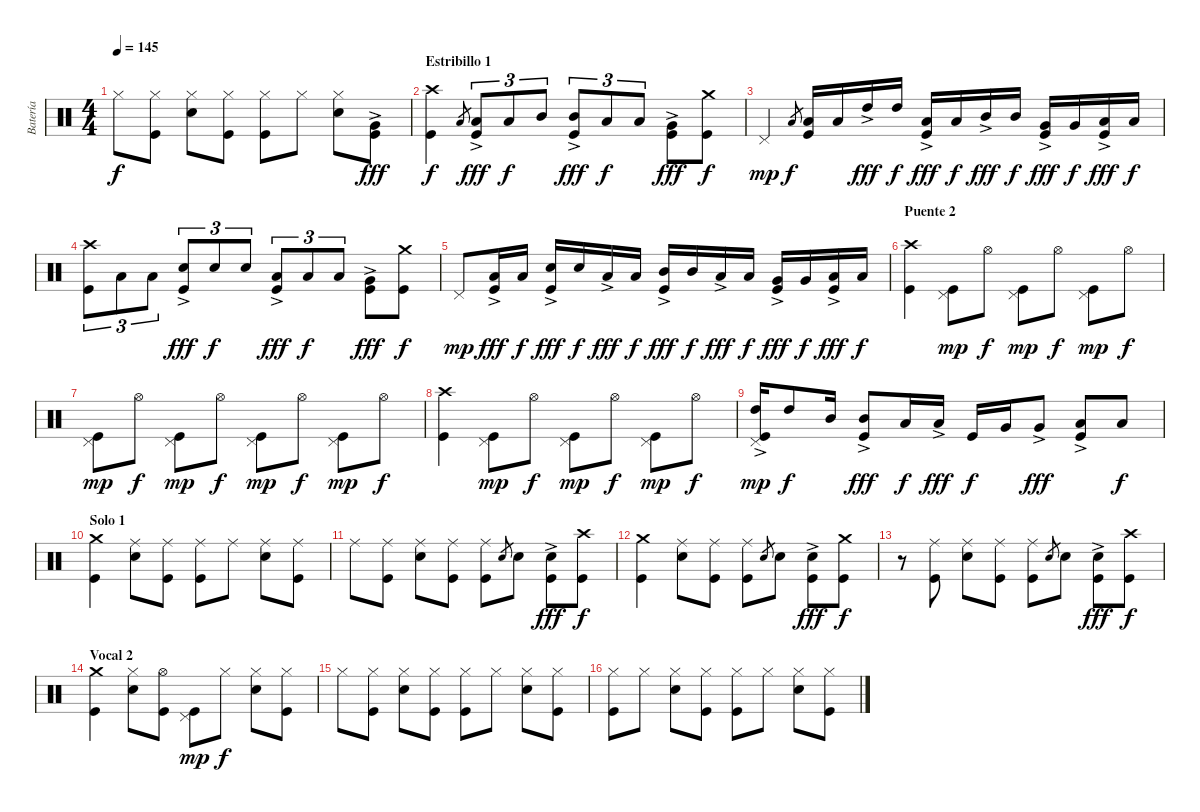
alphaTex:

\track ("Batería" "Batería") {instrument percussion}
\staff {score}
\articulation defaults
\ts (4 4)
\tempo 145
\clef neutral
\ks c "Hi-Hat (closed)".8{dy f}
("Kick (hit)" "Hi-Hat (closed)").8 ("Electric Snare (hit)" "Hi-Hat (closed)").8 ("Kick (hit)" "Hi-Hat (closed)").8 ("Kick (hit)" "Hi-Hat (closed)").8 "Hi-Hat (closed)".8 ("Electric Snare (hit)" "Hi-Hat (closed)").8 ("Kick (hit)" "Very Low Tom (hit)"{ac}).8{dy fff} |
\section ("" "Estribillo 1")
("Kick (hit)" "Crash high (hit)").4{dy f} "Low Tom (hit)".8{gr} ("Kick (hit)" "Low Tom (hit)"{ac}).8{tu (3 2) dy fff} "Low Tom (hit)".8{tu (3 2) dy f} "Mid Tom (hit)".8{tu (3 2)} ("Kick (hit)" "Mid Tom (hit)"{ac}).8{tu (3 2) dy fff} "Low Tom (hit)".8{tu (3 2) dy f} "Low Tom (hit)".8{tu (3 2)} ("Kick (hit)" "Very Low Tom (hit)"{ac}).8{dy fff} ("Kick (hit)" "Crash medium (hit)").8{dy f} |
"Pedal Hi-Hat (hit)".4{dy mp} "Low Tom (hit)".8{gr dy f} ("Kick (hit)" "Low Tom (hit)").16 "Low Tom (hit)".16 "High Tom (hit)"{ac}.16{dy fff} "High Tom (hit)".16{dy f} ("Kick (hit)" "Low Tom (hit)"{ac}).16{dy fff} "Low Tom (hit)".16{dy f} "Mid Tom (hit)"{ac}.16{dy fff} "Mid Tom (hit)".16{dy f} ("Kick (hit)" "Very Low Tom (hit)"{ac}).16{dy fff} "Very Low Tom (hit)".16{dy f} ("Kick (hit)" "Low Floor Tom (hit)"{ac}).16{dy fff} "Low Floor Tom (hit)".16{dy f} |
("Kick (hit)" "Crash high (hit)").8{tu (3 2)} "Low Tom (hit)".8{tu (3 2)} "Low Tom (hit)".8{tu (3 2)} ("Kick (hit)" "Electric Snare (hit)"{ac}).8{tu (3 2) dy fff} "Electric Snare (hit)".8{tu (3 2) dy f} "Electric Snare (hit)".8{tu (3 2)} ("Kick (hit)" "Low Tom (hit)"{ac}).8{tu (3 2) dy fff} "Low Tom (hit)".8{tu (3 2) dy f} "Low Tom (hit)".8{tu (3 2)} ("Kick (hit)" "Very Low Tom (hit)"{ac}).8{dy fff} ("Kick (hit)" "Crash medium (hit)").8{dy f} |
"Pedal Hi-Hat (hit)".8{dy mp} ("Kick (hit)" "Low Tom (hit)"{ac}).16{dy fff} "Low Tom (hit)".16{dy f} ("Kick (hit)" "Electric Snare (hit)"{ac}).16{dy fff} "Electric Snare (hit)".16{dy f} "Low Tom (hit)"{ac}.16{dy fff} "Low Tom (hit)".16{dy f} ("Kick (hit)" "Mid Tom (hit)"{ac}).16{dy fff} "Mid Tom (hit)".16{dy f} "Low Tom (hit)"{ac}.16{dy fff} "Low Tom (hit)".16{dy f} ("Kick (hit)" "Very Low Tom (hit)"{ac}).16{dy fff} "Very Low Tom (hit)".16{dy f} ("Kick (hit)" "Low Floor Tom (hit)"{ac}).16{dy fff} "Low Floor Tom (hit)".16{dy f} |
\section ("" "Puente 2")
("Kick (hit)" "Crash high (hit)").4 ("Kick (hit)" "Pedal Hi-Hat (hit)").8{dy mp} "Hi-Hat (open)".8{dy f} ("Kick (hit)" "Pedal Hi-Hat (hit)").8{dy mp} "Hi-Hat (open)".8{dy f} ("Kick (hit)" "Pedal Hi-Hat (hit)").8{dy mp} "Hi-Hat (open)".8{dy f} |
("Kick (hit)" "Pedal Hi-Hat (hit)").8{dy mp} "Hi-Hat (open)".8{dy f} ("Kick (hit)" "Pedal Hi-Hat (hit)").8{dy mp} "Hi-Hat (open)".8{dy f} ("Kick (hit)" "Pedal Hi-Hat (hit)").8{dy mp} "Hi-Hat (open)".8{dy f} ("Kick (hit)" "Pedal Hi-Hat (hit)").8{dy mp} "Hi-Hat (open)".8{dy f} |
("Kick (hit)" "Crash high (hit)").4 ("Kick (hit)" "Pedal Hi-Hat (hit)").8{dy mp} "Hi-Hat (open)".8{dy f} ("Kick (hit)" "Pedal Hi-Hat (hit)").8{dy mp} "Hi-Hat (open)".8{dy f} ("Kick (hit)" "Pedal Hi-Hat (hit)").8{dy mp} "Hi-Hat (open)".8{dy f} |
("Kick (hit)" "High Tom (hit)"{ac} "Pedal Hi-Hat (hit)").16{dy mp} "High Tom (hit)".8{dy f} "Mid Tom (hit)".16 ("Kick (hit)" "Mid Tom (hit)"{ac}).8{dy fff} "Low Tom (hit)".16{dy f} "Low Tom (hit)"{ac}.16{dy fff} "Kick (hit)".16{dy f} "Very Low Tom (hit)".16 "Very Low Tom (hit)"{ac}.8{dy fff} ("Kick (hit)" "Low Floor Tom (hit)"{ac}).8 "Low Floor Tom (hit)".8{dy f} |
\section ("" "Solo 1")
("Kick (hit)" "Crash medium (hit)").4 ("Electric Snare (hit)" "Ride (middle)").8 ("Kick (hit)" "Ride (middle)").8 ("Kick (hit)" "Ride (middle)").8 "Ride (middle)".8 ("Electric Snare (hit)" "Ride (middle)").8 ("Kick (hit)" "Ride (middle)").8 |
"Ride (middle)".8 ("Kick (hit)" "Ride (middle)").8 ("Electric Snare (hit)" "Ride (middle)").8 ("Kick (hit)" "Ride (middle)").8 ("Kick (hit)" "Ride (middle)").8 "Electric Snare (hit)".8{gr} "Electric Snare (hit)".8 ("Kick (hit)" "Electric Snare (hit)"{ac}).8{dy fff} ("Kick (hit)" "Crash high (hit)").8{dy f} |
("Kick (hit)" "Crash medium (hit)").4 ("Electric Snare (hit)" "Ride (middle)").8 ("Kick (hit)" "Ride (middle)").8 ("Kick (hit)" "Ride (middle)").8 "Electric Snare (hit)".8{gr} "Electric Snare (hit)".8 ("Kick (hit)" "Electric Snare (hit)"{ac}).8{dy fff} ("Kick (hit)" "Crash medium (hit)").8{dy f} |
r.8 ("Kick (hit)" "Ride (middle)").8 ("Electric Snare (hit)" "Ride (middle)").8 ("Kick (hit)" "Ride (middle)").8 ("Kick (hit)" "Ride (middle)").8 "Electric Snare (hit)".8{gr} "Electric Snare (hit)".8 ("Kick (hit)" "Electric Snare (hit)"{ac}).8{dy fff} ("Kick (hit)" "Crash high (hit)").8{dy f} |
\section ("" "Vocal 2")
("Kick (hit)" "Crash medium (hit)").4 ("Electric Snare (hit)" "Hi-Hat (closed)").8 ("Kick (hit)" "Hi-Hat (open)").8 ("Kick (hit)" "Pedal Hi-Hat (hit)").8{dy mp} "Hi-Hat (closed)".8{dy f} ("Electric Snare (hit)" "Hi-Hat (closed)").8 ("Kick (hit)" "Hi-Hat (closed)").8 |
"Hi-Hat (closed)".8 ("Kick (hit)" "Hi-Hat (closed)").8 ("Electric Snare (hit)" "Hi-Hat (closed)").8 ("Kick (hit)" "Hi-Hat (closed)").8 ("Kick (hit)" "Hi-Hat (closed)").8 "Hi-Hat (closed)".8 ("Electric Snare (hit)" "Hi-Hat (closed)").8 ("Kick (hit)" "Hi-Hat (closed)").8 |
("Kick (hit)" "Hi-Hat (closed)").8 "Hi-Hat (closed)".8 ("Electric Snare (hit)" "Hi-Hat (closed)").8 ("Kick (hit)" "Hi-Hat (closed)").8 ("Kick (hit)" "Hi-Hat (closed)").8 "Hi-Hat (closed)".8 ("Electric Snare (hit)" "Hi-Hat (closed)").8 ("Kick (hit)" "Hi-Hat (closed)").8
